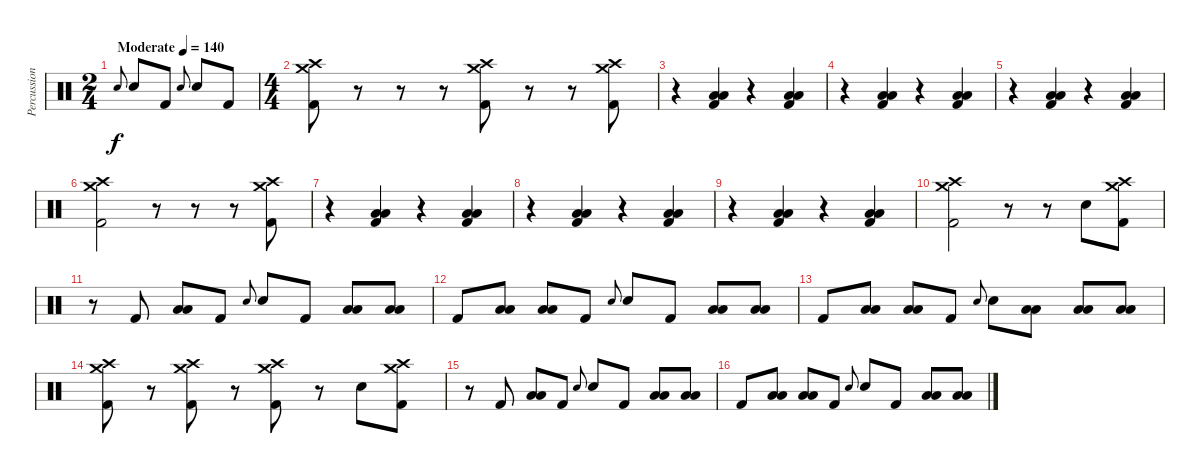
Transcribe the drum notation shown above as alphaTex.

\track ("Percussion" "Percussion") {instrument percussion}
\staff {score}
\articulation defaults
\ts (2 4)
\tempo (140 "Moderate")
\clef neutral
\ks c "Electric Snare (hit)".8{gr onbeat dy f} "Electric Snare (hit)".8 "Kick (hit) 2".8 "Electric Snare (hit)".8{gr onbeat} "Electric Snare (hit)".8 "Kick (hit) 2".8
|
\ts (4 4)
("Crash medium (hit)" "Crash high (hit)" "Kick (hit) 2").8 r.8 r.8 r.8 ("Crash medium (hit)" "Crash high (hit)" "Kick (hit) 2").8 r.8 r.8 ("Crash medium (hit)" "Crash high (hit)" "Kick (hit) 2").8 |
r.4 ("Low Tom (hit)" "Low Floor Tom (hit)" "Kick (hit) 2").4 r.4 ("Low Tom (hit)" "Low Floor Tom (hit)" "Kick (hit) 2").4 |
r.4 ("Low Tom (hit)" "Low Floor Tom (hit)" "Kick (hit) 2").4 r.4 ("Low Tom (hit)" "Low Floor Tom (hit)" "Kick (hit) 2").4 |
r.4 ("Low Tom (hit)" "Low Floor Tom (hit)" "Kick (hit) 2").4 r.4 ("Low Tom (hit)" "Low Floor Tom (hit)" "Kick (hit) 2").4 |
("Crash medium (hit)" "Crash high (hit)" "Kick (hit) 2").2 r.8 r.8 r.8 ("Crash medium (hit)" "Crash high (hit)" "Kick (hit) 2").8 |
r.4 ("Low Tom (hit)" "Low Floor Tom (hit)" "Kick (hit) 2").4 r.4 ("Low Tom (hit)" "Low Floor Tom (hit)" "Kick (hit) 2").4 |
r.4 ("Low Tom (hit)" "Low Floor Tom (hit)" "Kick (hit) 2").4 r.4 ("Low Tom (hit)" "Low Floor Tom (hit)" "Kick (hit) 2").4 |
r.4 ("Low Tom (hit)" "Low Floor Tom (hit)" "Kick (hit) 2").4 r.4 ("Low Tom (hit)" "Low Floor Tom (hit)" "Kick (hit) 2").4 |
("Crash medium (hit)" "Crash high (hit)" "Kick (hit) 2").2 r.8 r.8 "Electric Snare (hit)".8 ("Crash medium (hit)" "Crash high (hit)" "Kick (hit) 2").8 |
r.8 "Kick (hit) 2".8 ("Low Tom (hit)" "Low Floor Tom (hit)").8 "Kick (hit) 2".8 "Electric Snare (hit)".8{gr onbeat} "Electric Snare (hit)".8 "Kick (hit) 2".8 ("Low Tom (hit)" "Low Floor Tom (hit)").8 ("Low Tom (hit)" "Low Floor Tom (hit)").8 |
"Kick (hit) 2".8 ("Low Tom (hit)" "Low Floor Tom (hit)").8 ("Low Tom (hit)" "Low Floor Tom (hit)").8 "Kick (hit) 2".8 "Electric Snare (hit)".8{gr onbeat} "Electric Snare (hit)".8 "Kick (hit) 2".8 ("Low Tom (hit)" "Low Floor Tom (hit)").8 ("Low Tom (hit)" "Low Floor Tom (hit)").8 |
"Kick (hit) 2".8 ("Low Tom (hit)" "Low Floor Tom (hit)").8 ("Low Tom (hit)" "Low Floor Tom (hit)").8 "Kick (hit) 2".8 "Electric Snare (hit)".8{gr onbeat} "Electric Snare (hit)".8 ("Low Tom (hit)" "Low Floor Tom (hit)").8 ("Low Tom (hit)" "Low Floor Tom (hit)").8 ("Low Tom (hit)" "Low Floor Tom (hit)").8 |
("Crash medium (hit)" "Crash high (hit)" "Kick (hit) 2").8 r.8 ("Crash medium (hit)" "Crash high (hit)" "Kick (hit) 2").8 r.8 ("Crash medium (hit)" "Crash high (hit)" "Kick (hit) 2").8 r.8 "Electric Snare (hit)".8 ("Crash medium (hit)" "Crash high (hit)" "Kick (hit) 2").8 |
r.8 "Kick (hit) 2".8 ("Low Tom (hit)" "Low Floor Tom (hit)").8 "Kick (hit) 2".8 "Electric Snare (hit)".8{gr onbeat} "Electric Snare (hit)".8 "Kick (hit) 2".8 ("Low Tom (hit)" "Low Floor Tom (hit)").8 ("Low Tom (hit)" "Low Floor Tom (hit)").8 |
"Kick (hit) 2".8 ("Low Tom (hit)" "Low Floor Tom (hit)").8 ("Low Tom (hit)" "Low Floor Tom (hit)").8 "Kick (hit) 2".8 "Electric Snare (hit)".8{gr onbeat} "Electric Snare (hit)".8 "Kick (hit) 2".8 ("Low Tom (hit)" "Low Floor Tom (hit)").8 ("Low Tom (hit)" "Low Floor Tom (hit)").8
